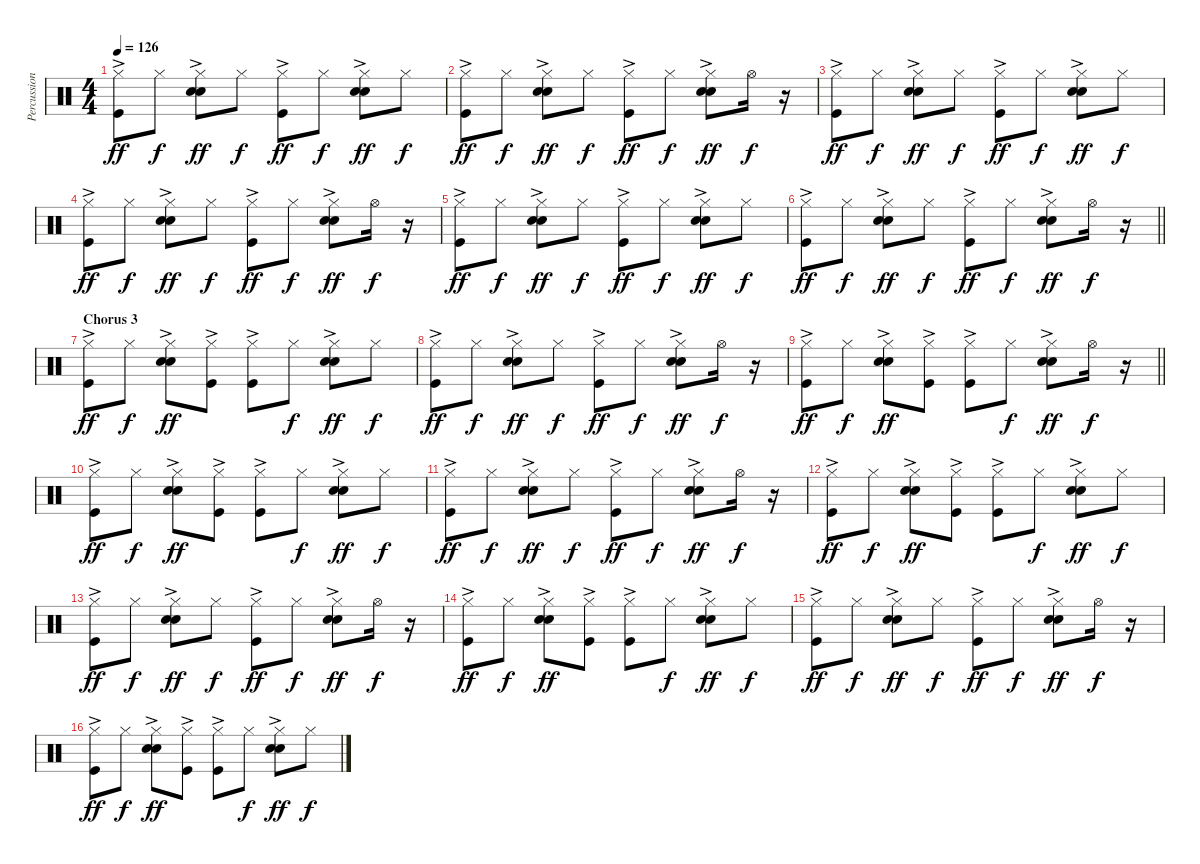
\track ("Percussion" "Percussion") {instrument percussion}
\staff {score}
\articulation defaults
\ts (4 4)
\tempo 126
\clef neutral
\ks c
("Hi-Hat (closed)" "Kick (hit)"{ac}).8{dy ff} "Hi-Hat (closed)".8{dy f} ("Hi-Hat (closed)" "Hand Clap (hit)"{ac} "Snare (hit) 2").8{dy ff} "Hi-Hat (closed)".8{dy f} ("Hi-Hat (closed)" "Kick (hit)"{ac}).8{dy ff} "Hi-Hat (closed)".8{dy f} ("Hi-Hat (closed)" "Hand Clap (hit)"{ac} "Snare (hit) 2").8{dy ff} "Hi-Hat (closed)".8{dy f} |
("Hi-Hat (closed)" "Kick (hit)"{ac}).8{dy ff} "Hi-Hat (closed)".8{dy f} ("Hi-Hat (closed)" "Hand Clap (hit)"{ac} "Snare (hit) 2").8{dy ff} "Hi-Hat (closed)".8{dy f} ("Hi-Hat (closed)" "Kick (hit)"{ac}).8{dy ff} "Hi-Hat (closed)".8{dy f} ("Hi-Hat (closed)" "Hand Clap (hit)"{ac} "Snare (hit) 2").8{dy ff} "Hi-Hat (open)".16{dy f} r.16 |
("Hi-Hat (closed)" "Kick (hit)"{ac}).8{dy ff} "Hi-Hat (closed)".8{dy f} ("Hi-Hat (closed)" "Hand Clap (hit)"{ac} "Snare (hit) 2").8{dy ff} "Hi-Hat (closed)".8{dy f} ("Hi-Hat (closed)" "Kick (hit)"{ac}).8{dy ff} "Hi-Hat (closed)".8{dy f} ("Hi-Hat (closed)" "Hand Clap (hit)"{ac} "Snare (hit) 2").8{dy ff} "Hi-Hat (closed)".8{dy f} |
("Hi-Hat (closed)" "Kick (hit)"{ac}).8{dy ff} "Hi-Hat (closed)".8{dy f} ("Hi-Hat (closed)" "Hand Clap (hit)"{ac} "Snare (hit) 2").8{dy ff} "Hi-Hat (closed)".8{dy f} ("Hi-Hat (closed)" "Kick (hit)"{ac}).8{dy ff} "Hi-Hat (closed)".8{dy f} ("Hi-Hat (closed)" "Hand Clap (hit)"{ac} "Snare (hit) 2").8{dy ff} "Hi-Hat (open)".16{dy f} r.16 |
("Hi-Hat (closed)" "Kick (hit)"{ac}).8{dy ff} "Hi-Hat (closed)".8{dy f} ("Hi-Hat (closed)" "Hand Clap (hit)"{ac} "Snare (hit) 2").8{dy ff} "Hi-Hat (closed)".8{dy f} ("Hi-Hat (closed)" "Kick (hit)"{ac}).8{dy ff} "Hi-Hat (closed)".8{dy f} ("Hi-Hat (closed)" "Hand Clap (hit)"{ac} "Snare (hit) 2").8{dy ff} "Hi-Hat (closed)".8{dy f} |
\barLineRight lightlight
("Hi-Hat (closed)" "Kick (hit)"{ac}).8{dy ff} "Hi-Hat (closed)".8{dy f} ("Hi-Hat (closed)" "Hand Clap (hit)"{ac} "Snare (hit) 2").8{dy ff} "Hi-Hat (closed)".8{dy f} ("Hi-Hat (closed)" "Kick (hit)"{ac}).8{dy ff} "Hi-Hat (closed)".8{dy f} ("Hi-Hat (closed)" "Hand Clap (hit)"{ac} "Snare (hit) 2").8{dy ff} "Hi-Hat (open)".16{dy f} r.16 |
\section ("" "Chorus 3")
("Hi-Hat (closed)" "Kick (hit)"{ac}).8{dy ff} "Hi-Hat (closed)".8{dy f} ("Hi-Hat (closed)" "Hand Clap (hit)"{ac} "Snare (hit) 2"{ac}).8{dy ff} ("Hi-Hat (closed)" "Kick (hit)"{ac}).8 ("Hi-Hat (closed)" "Kick (hit)"{ac}).8 "Hi-Hat (closed)".8{dy f} ("Hi-Hat (closed)" "Hand Clap (hit)"{ac} "Snare (hit) 2"{ac}).8{dy ff} "Hi-Hat (closed)".8{dy f} |
("Hi-Hat (closed)" "Kick (hit)"{ac}).8{dy ff} "Hi-Hat (closed)".8{dy f} ("Hi-Hat (closed)" "Hand Clap (hit)"{ac} "Snare (hit) 2"{ac}).8{dy ff} "Hi-Hat (closed)".8{dy f} ("Hi-Hat (closed)" "Kick (hit)"{ac}).8{dy ff} "Hi-Hat (closed)".8{dy f} ("Hi-Hat (closed)" "Hand Clap (hit)"{ac} "Snare (hit) 2"{ac}).8{dy ff} "Hi-Hat (open)".16{dy f} r.16 |
\barLineRight lightlight
("Hi-Hat (closed)" "Kick (hit)"{ac}).8{dy ff} "Hi-Hat (closed)".8{dy f} ("Hi-Hat (closed)" "Hand Clap (hit)"{ac} "Snare (hit) 2"{ac}).8{dy ff} ("Hi-Hat (closed)" "Kick (hit)"{ac}).8 ("Hi-Hat (closed)" "Kick (hit)"{ac}).8 "Hi-Hat (closed)".8{dy f} ("Hi-Hat (closed)" "Hand Clap (hit)"{ac} "Snare (hit) 2"{ac}).8{dy ff} "Hi-Hat (open)".16{dy f} r.16 |
("Hi-Hat (closed)" "Kick (hit)"{ac}).8{dy ff} "Hi-Hat (closed)".8{dy f} ("Hi-Hat (closed)" "Hand Clap (hit)"{ac} "Snare (hit) 2"{ac}).8{dy ff} ("Hi-Hat (closed)" "Kick (hit)"{ac}).8 ("Hi-Hat (closed)" "Kick (hit)"{ac}).8 "Hi-Hat (closed)".8{dy f} ("Hi-Hat (closed)" "Hand Clap (hit)"{ac} "Snare (hit) 2"{ac}).8{dy ff} "Hi-Hat (closed)".8{dy f} |
("Hi-Hat (closed)" "Kick (hit)"{ac}).8{dy ff} "Hi-Hat (closed)".8{dy f} ("Hi-Hat (closed)" "Hand Clap (hit)"{ac} "Snare (hit) 2"{ac}).8{dy ff} "Hi-Hat (closed)".8{dy f} ("Hi-Hat (closed)" "Kick (hit)"{ac}).8{dy ff} "Hi-Hat (closed)".8{dy f} ("Hi-Hat (closed)" "Hand Clap (hit)"{ac} "Snare (hit) 2"{ac}).8{dy ff} "Hi-Hat (open)".16{dy f} r.16 |
("Hi-Hat (closed)" "Kick (hit)"{ac}).8{dy ff} "Hi-Hat (closed)".8{dy f} ("Hi-Hat (closed)" "Hand Clap (hit)"{ac} "Snare (hit) 2"{ac}).8{dy ff} ("Hi-Hat (closed)" "Kick (hit)"{ac}).8 ("Hi-Hat (closed)" "Kick (hit)"{ac}).8 "Hi-Hat (closed)".8{dy f} ("Hi-Hat (closed)" "Hand Clap (hit)"{ac} "Snare (hit) 2"{ac}).8{dy ff} "Hi-Hat (closed)".8{dy f} |
("Hi-Hat (closed)" "Kick (hit)"{ac}).8{dy ff} "Hi-Hat (closed)".8{dy f} ("Hi-Hat (closed)" "Hand Clap (hit)"{ac} "Snare (hit) 2"{ac}).8{dy ff} "Hi-Hat (closed)".8{dy f} ("Hi-Hat (closed)" "Kick (hit)"{ac}).8{dy ff} "Hi-Hat (closed)".8{dy f} ("Hi-Hat (closed)" "Hand Clap (hit)"{ac} "Snare (hit) 2"{ac}).8{dy ff} "Hi-Hat (open)".16{dy f} r.16 |
("Hi-Hat (closed)" "Kick (hit)"{ac}).8{dy ff} "Hi-Hat (closed)".8{dy f} ("Hi-Hat (closed)" "Hand Clap (hit)"{ac} "Snare (hit) 2"{ac}).8{dy ff} ("Hi-Hat (closed)" "Kick (hit)"{ac}).8 ("Hi-Hat (closed)" "Kick (hit)"{ac}).8 "Hi-Hat (closed)".8{dy f} ("Hi-Hat (closed)" "Hand Clap (hit)"{ac} "Snare (hit) 2"{ac}).8{dy ff} "Hi-Hat (closed)".8{dy f} |
("Hi-Hat (closed)" "Kick (hit)"{ac}).8{dy ff} "Hi-Hat (closed)".8{dy f} ("Hi-Hat (closed)" "Hand Clap (hit)"{ac} "Snare (hit) 2"{ac}).8{dy ff} "Hi-Hat (closed)".8{dy f} ("Hi-Hat (closed)" "Kick (hit)"{ac}).8{dy ff} "Hi-Hat (closed)".8{dy f} ("Hi-Hat (closed)" "Hand Clap (hit)"{ac} "Snare (hit) 2"{ac}).8{dy ff} "Hi-Hat (open)".16{dy f} r.16 |
("Hi-Hat (closed)" "Kick (hit)"{ac}).8{dy ff} "Hi-Hat (closed)".8{dy f} ("Hi-Hat (closed)" "Hand Clap (hit)"{ac} "Snare (hit) 2"{ac}).8{dy ff} ("Hi-Hat (closed)" "Kick (hit)"{ac}).8 ("Hi-Hat (closed)" "Kick (hit)"{ac}).8 "Hi-Hat (closed)".8{dy f} ("Hi-Hat (closed)" "Hand Clap (hit)"{ac} "Snare (hit) 2"{ac}).8{dy ff} "Hi-Hat (closed)".8{dy f}
